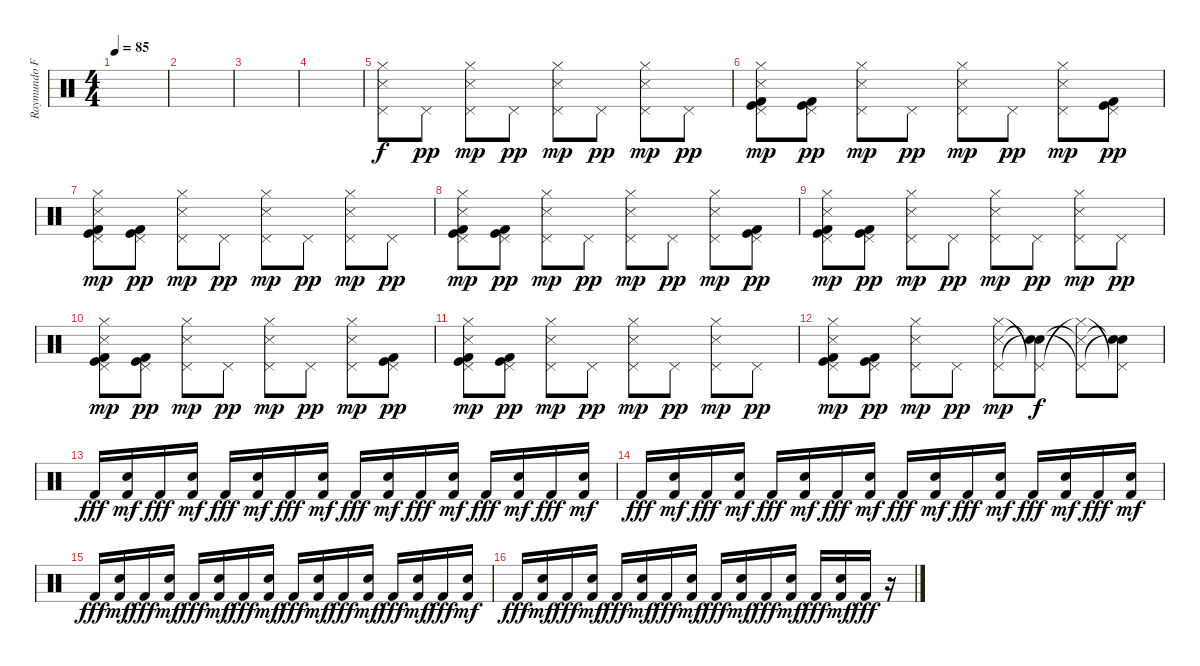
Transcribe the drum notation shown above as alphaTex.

\track ("Raymundo Fajardo (Bateria)" "Raymundo F") {instrument percussion}
\staff {score}
\articulation defaults
\ts (4 4)
\tempo 85
\clef neutral
\ks c
|
|
|
|
("Hi-Hat (closed)" "Pedal Hi-Hat (hit)" "Snare (side stick) 3").8 "Pedal Hi-Hat (hit)".8{dy pp} ("Hi-Hat (closed)" "Pedal Hi-Hat (hit)" "Snare (side stick) 3").8{dy mp} "Pedal Hi-Hat (hit)".8{dy pp} ("Hi-Hat (closed)" "Pedal Hi-Hat (hit)" "Snare (side stick) 3").8{dy mp} "Pedal Hi-Hat (hit)".8{dy pp} ("Hi-Hat (closed)" "Pedal Hi-Hat (hit)" "Snare (side stick) 3").8{dy mp} "Pedal Hi-Hat (hit)".8{dy pp} |
("Hi-Hat (closed)" "Pedal Hi-Hat (hit)" "Kick (hit)" "Kick (hit) 2" "Snare (side stick) 3").8{dy mp} ("Pedal Hi-Hat (hit)" "Kick (hit)" "Kick (hit) 2").8{dy pp} ("Hi-Hat (closed)" "Pedal Hi-Hat (hit)" "Snare (side stick) 3").8{dy mp} "Pedal Hi-Hat (hit)".8{dy pp} ("Hi-Hat (closed)" "Pedal Hi-Hat (hit)" "Snare (side stick) 3").8{dy mp} "Pedal Hi-Hat (hit)".8{dy pp} ("Hi-Hat (closed)" "Pedal Hi-Hat (hit)" "Snare (side stick) 3").8{dy mp} ("Pedal Hi-Hat (hit)" "Kick (hit) 2" "Kick (hit)").8{dy pp} |
("Hi-Hat (closed)" "Pedal Hi-Hat (hit)" "Kick (hit)" "Kick (hit) 2" "Snare (side stick) 3").8{dy mp} ("Pedal Hi-Hat (hit)" "Kick (hit)" "Kick (hit) 2").8{dy pp} ("Hi-Hat (closed)" "Pedal Hi-Hat (hit)" "Snare (side stick) 3").8{dy mp} "Pedal Hi-Hat (hit)".8{dy pp} ("Hi-Hat (closed)" "Pedal Hi-Hat (hit)" "Snare (side stick) 3").8{dy mp} "Pedal Hi-Hat (hit)".8{dy pp} ("Hi-Hat (closed)" "Pedal Hi-Hat (hit)" "Snare (side stick) 3").8{dy mp} "Pedal Hi-Hat (hit)".8{dy pp} |
("Hi-Hat (closed)" "Pedal Hi-Hat (hit)" "Kick (hit)" "Kick (hit) 2" "Snare (side stick) 3").8{dy mp} ("Pedal Hi-Hat (hit)" "Kick (hit)" "Kick (hit) 2").8{dy pp} ("Hi-Hat (closed)" "Pedal Hi-Hat (hit)" "Snare (side stick) 3").8{dy mp} "Pedal Hi-Hat (hit)".8{dy pp} ("Hi-Hat (closed)" "Pedal Hi-Hat (hit)" "Snare (side stick) 3").8{dy mp} "Pedal Hi-Hat (hit)".8{dy pp} ("Hi-Hat (closed)" "Pedal Hi-Hat (hit)" "Snare (side stick) 3").8{dy mp} ("Pedal Hi-Hat (hit)" "Kick (hit) 2" "Kick (hit)").8{dy pp} |
("Hi-Hat (closed)" "Pedal Hi-Hat (hit)" "Kick (hit)" "Kick (hit) 2" "Snare (side stick) 3").8{dy mp} ("Pedal Hi-Hat (hit)" "Kick (hit)" "Kick (hit) 2").8{dy pp} ("Hi-Hat (closed)" "Pedal Hi-Hat (hit)" "Snare (side stick) 3").8{dy mp} "Pedal Hi-Hat (hit)".8{dy pp} ("Hi-Hat (closed)" "Pedal Hi-Hat (hit)" "Snare (side stick) 3").8{dy mp} "Pedal Hi-Hat (hit)".8{dy pp} ("Hi-Hat (closed)" "Pedal Hi-Hat (hit)" "Snare (side stick) 3").8{dy mp} "Pedal Hi-Hat (hit)".8{dy pp} |
("Hi-Hat (closed)" "Pedal Hi-Hat (hit)" "Kick (hit)" "Kick (hit) 2" "Snare (side stick) 3").8{dy mp} ("Pedal Hi-Hat (hit)" "Kick (hit)" "Kick (hit) 2").8{dy pp} ("Hi-Hat (closed)" "Pedal Hi-Hat (hit)" "Snare (side stick) 3").8{dy mp} "Pedal Hi-Hat (hit)".8{dy pp} ("Hi-Hat (closed)" "Pedal Hi-Hat (hit)" "Snare (side stick) 3").8{dy mp} "Pedal Hi-Hat (hit)".8{dy pp} ("Hi-Hat (closed)" "Pedal Hi-Hat (hit)" "Snare (side stick) 3").8{dy mp} ("Pedal Hi-Hat (hit)" "Kick (hit) 2" "Kick (hit)").8{dy pp} |
("Hi-Hat (closed)" "Pedal Hi-Hat (hit)" "Kick (hit)" "Kick (hit) 2" "Snare (side stick) 3").8{dy mp} ("Pedal Hi-Hat (hit)" "Kick (hit)" "Kick (hit) 2").8{dy pp} ("Hi-Hat (closed)" "Pedal Hi-Hat (hit)" "Snare (side stick) 3").8{dy mp} "Pedal Hi-Hat (hit)".8{dy pp} ("Hi-Hat (closed)" "Pedal Hi-Hat (hit)" "Snare (side stick) 3").8{dy mp} "Pedal Hi-Hat (hit)".8{dy pp} ("Hi-Hat (closed)" "Pedal Hi-Hat (hit)" "Snare (side stick) 3").8{dy mp} "Pedal Hi-Hat (hit)".8{dy pp} |
("Hi-Hat (closed)" "Pedal Hi-Hat (hit)" "Kick (hit)" "Kick (hit) 2" "Snare (side stick) 3").8{dy mp} ("Pedal Hi-Hat (hit)" "Kick (hit)" "Kick (hit) 2").8{dy pp} ("Hi-Hat (closed)" "Pedal Hi-Hat (hit)" "Snare (side stick) 3").8{dy mp} "Pedal Hi-Hat (hit)".8{dy pp} ("Hi-Hat (closed)" "Pedal Hi-Hat (hit)" "Snare (side stick) 3").8{dy mp} ("Pedal Hi-Hat (hit)"{t} "Snare (hit)"{t} "Snare (hit)"{t}).8{dy f} ("Hi-Hat (closed)"{t} "Pedal Hi-Hat (hit)"{t} "Snare (side stick) 3"{t}).8 ("Pedal Hi-Hat (hit)"{t} "Snare (hit)"{t} "Snare (hit)"{t}).8 |
"Kick (hit) 2".16{dy fff} ("Kick (hit) 2" "Electric Snare (hit)").16{dy mf} "Kick (hit) 2".16{dy fff} ("Kick (hit) 2" "Electric Snare (hit)").16{dy mf} "Kick (hit) 2".16{dy fff} ("Kick (hit) 2" "Electric Snare (hit)").16{dy mf} "Kick (hit) 2".16{dy fff} ("Kick (hit) 2" "Electric Snare (hit)").16{dy mf} "Kick (hit) 2".16{dy fff} ("Kick (hit) 2" "Electric Snare (hit)").16{dy mf} "Kick (hit) 2".16{dy fff} ("Kick (hit) 2" "Electric Snare (hit)").16{dy mf} "Kick (hit) 2".16{dy fff} ("Kick (hit) 2" "Electric Snare (hit)").16{dy mf} "Kick (hit) 2".16{dy fff} ("Kick (hit) 2" "Electric Snare (hit)").16{dy mf} |
"Kick (hit) 2".16{dy fff} ("Kick (hit) 2" "Electric Snare (hit)").16{dy mf} "Kick (hit) 2".16{dy fff} ("Kick (hit) 2" "Electric Snare (hit)").16{dy mf} "Kick (hit) 2".16{dy fff} ("Kick (hit) 2" "Electric Snare (hit)").16{dy mf} "Kick (hit) 2".16{dy fff} ("Kick (hit) 2" "Electric Snare (hit)").16{dy mf} "Kick (hit) 2".16{dy fff} ("Kick (hit) 2" "Electric Snare (hit)").16{dy mf} "Kick (hit) 2".16{dy fff} ("Kick (hit) 2" "Electric Snare (hit)").16{dy mf} "Kick (hit) 2".16{dy fff} ("Kick (hit) 2" "Electric Snare (hit)").16{dy mf} "Kick (hit) 2".16{dy fff} ("Kick (hit) 2" "Electric Snare (hit)").16{dy mf} |
"Kick (hit) 2".16{dy fff} ("Kick (hit) 2" "Electric Snare (hit)").16{dy mf} "Kick (hit) 2".16{dy fff} ("Kick (hit) 2" "Electric Snare (hit)").16{dy mf} "Kick (hit) 2".16{dy fff} ("Kick (hit) 2" "Electric Snare (hit)").16{dy mf} "Kick (hit) 2".16{dy fff} ("Kick (hit) 2" "Electric Snare (hit)").16{dy mf} "Kick (hit) 2".16{dy fff} ("Kick (hit) 2" "Electric Snare (hit)").16{dy mf} "Kick (hit) 2".16{dy fff} ("Kick (hit) 2" "Electric Snare (hit)").16{dy mf} "Kick (hit) 2".16{dy fff} ("Kick (hit) 2" "Electric Snare (hit)").16{dy mf} "Kick (hit) 2".16{dy fff} ("Kick (hit) 2" "Electric Snare (hit)").16{dy mf} |
"Kick (hit) 2".16{dy fff} ("Kick (hit) 2" "Electric Snare (hit)").16{dy mf} "Kick (hit) 2".16{dy fff} ("Kick (hit) 2" "Electric Snare (hit)").16{dy mf} "Kick (hit) 2".16{dy fff} ("Kick (hit) 2" "Electric Snare (hit)").16{dy mf} "Kick (hit) 2".16{dy fff} ("Kick (hit) 2" "Electric Snare (hit)").16{dy mf} "Kick (hit) 2".16{dy fff} ("Kick (hit) 2" "Electric Snare (hit)").16{dy mf} "Kick (hit) 2".16{dy fff} ("Kick (hit) 2" "Electric Snare (hit)").16{dy mf} "Kick (hit) 2".16{dy fff} ("Kick (hit) 2" "Electric Snare (hit)").16{dy mf} "Kick (hit) 2".16{dy fff} r.16
